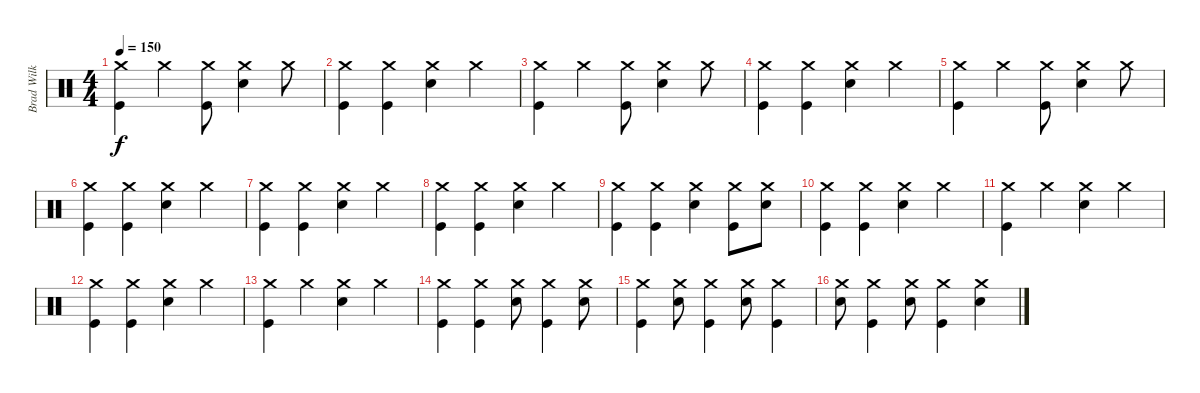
\track ("Brad Wilk" "Brad Wilk") {instrument percussion}
\staff {score}
\articulation defaults
\ts (4 4)
\tempo 150
\clef neutral
\ks c
("Crash medium (hit)" "Kick (hit)").4{dy f} "Crash medium (hit)".4 ("Crash medium (hit)" "Kick (hit)").8 ("Crash medium (hit)" "Electric Snare (hit)").4 "Crash medium (hit)".8 |
("Crash medium (hit)" "Kick (hit)").4 ("Crash medium (hit)" "Kick (hit)").4 ("Crash medium (hit)" "Electric Snare (hit)").4 "Crash medium (hit)".4 |
("Crash medium (hit)" "Kick (hit)").4 "Crash medium (hit)".4 ("Crash medium (hit)" "Kick (hit)").8 ("Crash medium (hit)" "Electric Snare (hit)").4 "Crash medium (hit)".8 |
("Crash medium (hit)" "Kick (hit)").4 ("Crash medium (hit)" "Kick (hit)").4 ("Crash medium (hit)" "Electric Snare (hit)").4 "Crash medium (hit)".4 |
("Crash medium (hit)" "Kick (hit)").4 "Crash medium (hit)".4 ("Crash medium (hit)" "Kick (hit)").8 ("Crash medium (hit)" "Electric Snare (hit)").4 "Crash medium (hit)".8 |
("Crash medium (hit)" "Kick (hit)").4 ("Crash medium (hit)" "Kick (hit)").4 ("Crash medium (hit)" "Electric Snare (hit)").4 "Crash medium (hit)".4 |
("Crash medium (hit)" "Kick (hit)").4 ("Crash medium (hit)" "Kick (hit)").4 ("Crash medium (hit)" "Electric Snare (hit)").4 "Crash medium (hit)".4 |
("Crash medium (hit)" "Kick (hit)").4 ("Crash medium (hit)" "Kick (hit)").4 ("Crash medium (hit)" "Electric Snare (hit)").4 "Crash medium (hit)".4 |
("Crash medium (hit)" "Kick (hit)").4 ("Crash medium (hit)" "Kick (hit)").4 ("Crash medium (hit)" "Electric Snare (hit)").4 ("Crash medium (hit)" "Kick (hit)").8 ("Crash medium (hit)" "Electric Snare (hit)").8 |
("Crash medium (hit)" "Kick (hit)").4 ("Crash medium (hit)" "Kick (hit)").4 ("Crash medium (hit)" "Electric Snare (hit)").4 "Crash medium (hit)".4 |
("Crash medium (hit)" "Kick (hit)").4 "Crash medium (hit)".4 ("Crash medium (hit)" "Electric Snare (hit)").4 "Crash medium (hit)".4 |
("Crash medium (hit)" "Kick (hit)").4 ("Crash medium (hit)" "Kick (hit)").4 ("Crash medium (hit)" "Electric Snare (hit)").4 "Crash medium (hit)".4 |
("Crash medium (hit)" "Kick (hit)").4 "Crash medium (hit)".4 ("Crash medium (hit)" "Electric Snare (hit)").4 "Crash medium (hit)".4 |
("Crash medium (hit)" "Kick (hit)").4 ("Crash medium (hit)" "Kick (hit)").4 ("Crash medium (hit)" "Electric Snare (hit)").8 ("Crash medium (hit)" "Kick (hit)").4 ("Crash medium (hit)" "Electric Snare (hit)").8 |
("Crash medium (hit)" "Kick (hit)").4 ("Crash medium (hit)" "Electric Snare (hit)").8 ("Crash medium (hit)" "Kick (hit)").4 ("Crash medium (hit)" "Electric Snare (hit)").8 ("Crash medium (hit)" "Kick (hit)").4 |
("Crash medium (hit)" "Electric Snare (hit)").8 ("Crash medium (hit)" "Kick (hit)").4 ("Crash medium (hit)" "Electric Snare (hit)").8 ("Crash medium (hit)" "Kick (hit)").4 ("Crash medium (hit)" "Electric Snare (hit)").4
